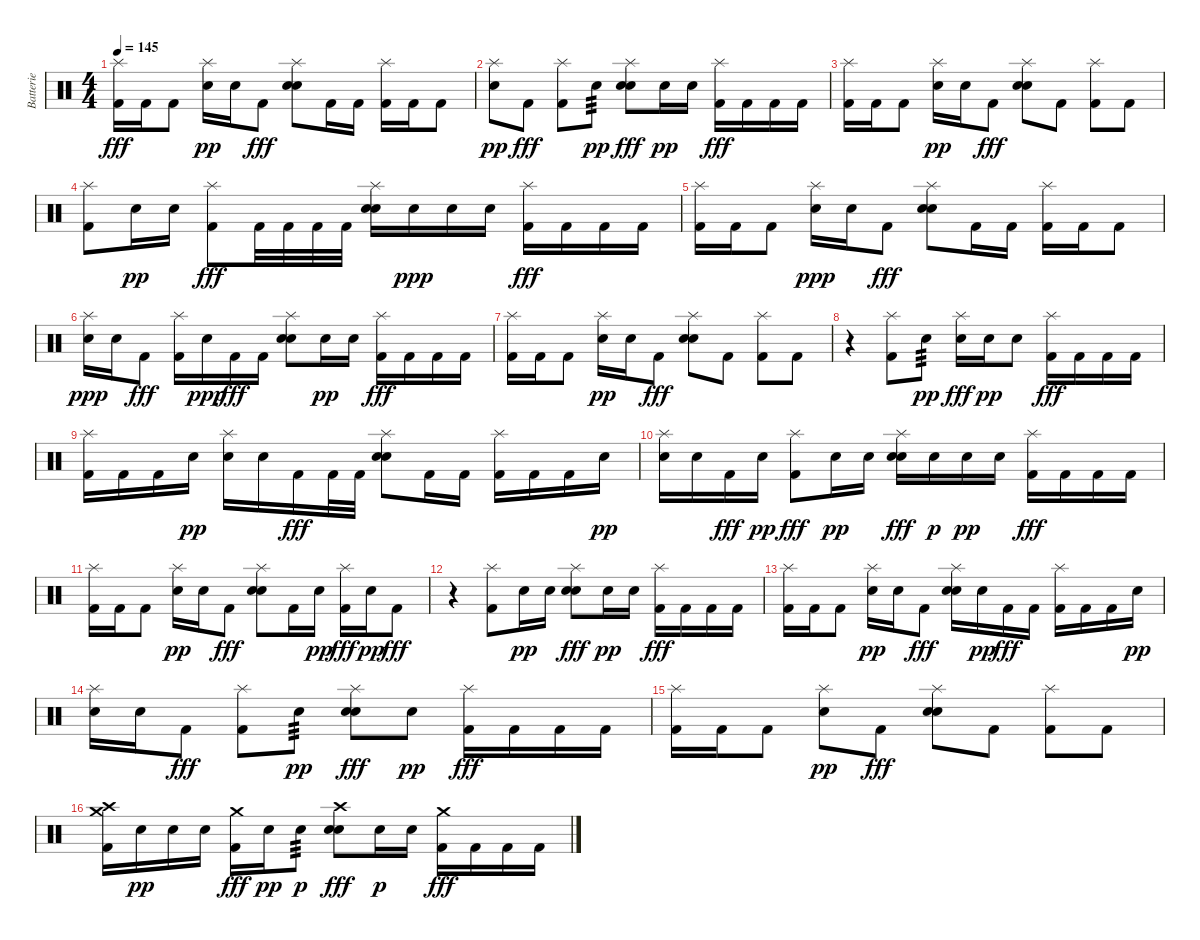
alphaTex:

\track ("Batterie" "Batterie") {instrument percussion}
\staff {score}
\articulation defaults
\ts (4 4)
\tempo 145
\clef neutral
\ks c
("Splash (hit)" "Kick (hit) 2").16{dy fff} "Kick (hit) 2".16 "Kick (hit) 2".8 ("Splash (hit)" "Electric Snare (hit)").16{dy pp} "Electric Snare (hit)".16 "Kick (hit) 2".8{dy fff} ("Splash (hit)" "Electric Snare (hit)" "Electric Snare (hit)").8 "Kick (hit) 2".16 "Kick (hit) 2".16 ("Splash (hit)" "Kick (hit) 2").16 "Kick (hit) 2".16 "Kick (hit) 2".8 |
("Splash (hit)" "Electric Snare (hit)").8{dy pp} "Kick (hit) 2".8{dy fff} ("Splash (hit)" "Kick (hit) 2").8 "Electric Snare (hit)".8{tp 3 dy pp} ("Splash (hit)" "Electric Snare (hit)" "Electric Snare (hit)").8{dy fff} "Electric Snare (hit)".16{dy pp} "Electric Snare (hit)".16 ("Splash (hit)" "Kick (hit) 2").16{dy fff} "Kick (hit) 2".16 "Kick (hit) 2".16 "Kick (hit) 2".16 |
("Splash (hit)" "Kick (hit) 2").16 "Kick (hit) 2".16 "Kick (hit) 2".8 ("Splash (hit)" "Electric Snare (hit)").16{dy pp} "Electric Snare (hit)".16 "Kick (hit) 2".8{dy fff} ("Splash (hit)" "Electric Snare (hit)" "Electric Snare (hit)").8 "Kick (hit) 2".8 ("Splash (hit)" "Kick (hit) 2").8 "Kick (hit) 2".8 |
("Splash (hit)" "Kick (hit) 2").8 "Electric Snare (hit)".16{dy pp} "Electric Snare (hit)".16 ("Splash (hit)" "Kick (hit) 2").8{dy fff} "Kick (hit) 2".32 "Kick (hit) 2".32 "Kick (hit) 2".32 "Kick (hit) 2".32 ("Splash (hit)" "Electric Snare (hit)" "Electric Snare (hit)").16 "Electric Snare (hit)".16{dy ppp} "Electric Snare (hit)".16 "Electric Snare (hit)".16 ("Splash (hit)" "Kick (hit) 2").16{dy fff} "Kick (hit) 2".16 "Kick (hit) 2".16 "Kick (hit) 2".16 |
("Splash (hit)" "Kick (hit) 2").16 "Kick (hit) 2".16 "Kick (hit) 2".8 ("Splash (hit)" "Electric Snare (hit)").16{dy ppp} "Electric Snare (hit)".16 "Kick (hit) 2".8{dy fff} ("Splash (hit)" "Electric Snare (hit)" "Electric Snare (hit)").8 "Kick (hit) 2".16 "Kick (hit) 2".16 ("Splash (hit)" "Kick (hit) 2").16 "Kick (hit) 2".16 "Kick (hit) 2".8 |
("Splash (hit)" "Electric Snare (hit)").16{dy ppp} "Electric Snare (hit)".16 "Kick (hit) 2".8{dy fff} ("Splash (hit)" "Kick (hit) 2").16 "Electric Snare (hit)".16{dy ppp} "Kick (hit) 2".16{dy fff} "Kick (hit) 2".16 ("Splash (hit)" "Electric Snare (hit)" "Electric Snare (hit)").8 "Electric Snare (hit)".16{dy pp} "Electric Snare (hit)".16 ("Splash (hit)" "Kick (hit) 2").16{dy fff} "Kick (hit) 2".16 "Kick (hit) 2".16 "Kick (hit) 2".16 |
("Splash (hit)" "Kick (hit) 2").16 "Kick (hit) 2".16 "Kick (hit) 2".8 ("Splash (hit)" "Electric Snare (hit)").16{dy pp} "Electric Snare (hit)".16 "Kick (hit) 2".8{dy fff} ("Splash (hit)" "Electric Snare (hit)" "Electric Snare (hit)").8 "Kick (hit) 2".8 ("Splash (hit)" "Kick (hit) 2").8 "Kick (hit) 2".8 |
r.4 ("Splash (hit)" "Kick (hit) 2").8 "Electric Snare (hit)".8{tp 3 dy pp} ("Splash (hit)" "Electric Snare (hit)").16{dy fff} "Electric Snare (hit)".16{dy pp} "Electric Snare (hit)".8 ("Splash (hit)" "Kick (hit) 2").16{dy fff} "Kick (hit) 2".16 "Kick (hit) 2".16 "Kick (hit) 2".16 |
("Splash (hit)" "Kick (hit) 2").16 "Kick (hit) 2".16 "Kick (hit) 2".16 "Electric Snare (hit)".16{dy pp} ("Splash (hit)" "Electric Snare (hit)").16 "Electric Snare (hit)".16 "Kick (hit) 2".16{dy fff} "Kick (hit) 2".32 "Kick (hit) 2".32 ("Splash (hit)" "Electric Snare (hit)" "Electric Snare (hit)").8 "Kick (hit) 2".16 "Kick (hit) 2".16 ("Splash (hit)" "Kick (hit) 2").16 "Kick (hit) 2".16 "Kick (hit) 2".16 "Electric Snare (hit)".16{dy pp} |
("Splash (hit)" "Electric Snare (hit)").16 "Electric Snare (hit)".16 "Kick (hit) 2".16{dy fff} "Electric Snare (hit)".16{dy pp} ("Splash (hit)" "Kick (hit) 2").8{dy fff} "Electric Snare (hit)".16{dy pp} "Electric Snare (hit)".16 ("Splash (hit)" "Electric Snare (hit)" "Electric Snare (hit)").16{dy fff} "Electric Snare (hit)".16{dy p} "Electric Snare (hit)".16{dy pp} "Electric Snare (hit)".16 ("Splash (hit)" "Kick (hit) 2").16{dy fff} "Kick (hit) 2".16 "Kick (hit) 2".16 "Kick (hit) 2".16 |
("Splash (hit)" "Kick (hit) 2").16 "Kick (hit) 2".16 "Kick (hit) 2".8 ("Splash (hit)" "Electric Snare (hit)").16{dy pp} "Electric Snare (hit)".16 "Kick (hit) 2".8{dy fff} ("Splash (hit)" "Electric Snare (hit)" "Electric Snare (hit)").8 "Kick (hit) 2".16 "Electric Snare (hit)".16{dy pp} ("Splash (hit)" "Kick (hit) 2").16{dy fff} "Electric Snare (hit)".16{dy pp} "Kick (hit) 2".8{dy fff} |
r.4 ("Splash (hit)" "Kick (hit) 2").8 "Electric Snare (hit)".16{dy pp} "Electric Snare (hit)".16 ("Splash (hit)" "Electric Snare (hit)" "Electric Snare (hit)").8{dy fff} "Electric Snare (hit)".16{dy pp} "Electric Snare (hit)".16 ("Splash (hit)" "Kick (hit) 2").16{dy fff} "Kick (hit) 2".16 "Kick (hit) 2".16 "Kick (hit) 2".16 |
("Splash (hit)" "Kick (hit) 2").16 "Kick (hit) 2".16 "Kick (hit) 2".8 ("Splash (hit)" "Electric Snare (hit)").16{dy pp} "Electric Snare (hit)".16 "Kick (hit) 2".8{dy fff} ("Splash (hit)" "Electric Snare (hit)" "Electric Snare (hit)").16 "Electric Snare (hit)".16{dy pp} "Kick (hit) 2".16{dy fff} "Kick (hit) 2".16 ("Splash (hit)" "Kick (hit) 2").16 "Kick (hit) 2".16 "Kick (hit) 2".16 "Electric Snare (hit)".16{dy pp} |
("Splash (hit)" "Electric Snare (hit)").16 "Electric Snare (hit)".16 "Kick (hit) 2".8{dy fff} ("Splash (hit)" "Kick (hit) 2").8 "Electric Snare (hit)".8{tp 3 dy pp} ("Splash (hit)" "Electric Snare (hit)" "Electric Snare (hit)").8{dy fff} "Electric Snare (hit)".8{dy pp} ("Splash (hit)" "Kick (hit) 2").16{dy fff} "Kick (hit) 2".16 "Kick (hit) 2".16 "Kick (hit) 2".16 |
("Splash (hit)" "Kick (hit) 2").16 "Kick (hit) 2".16 "Kick (hit) 2".8 ("Splash (hit)" "Electric Snare (hit)").8{dy pp} "Kick (hit) 2".8{dy fff} ("Splash (hit)" "Electric Snare (hit)" "Electric Snare (hit)").8 "Kick (hit) 2".8 ("Splash (hit)" "Kick (hit) 2").8 "Kick (hit) 2".8 |
("Crash high (hit)" "Crash medium (hit)" "Kick (hit) 2").16 "Electric Snare (hit)".16{dy pp} "Electric Snare (hit)".16 "Electric Snare (hit)".16 ("Crash medium (hit)" "Kick (hit) 2").16{dy fff} "Electric Snare (hit)".16{dy pp} "Electric Snare (hit)".8{tp 3 dy p} ("Crash high (hit)" "Electric Snare (hit)" "Electric Snare (hit)").8{dy fff} "Electric Snare (hit)".16{dy p} "Electric Snare (hit)".16 ("Crash medium (hit)" "Kick (hit) 2").16{dy fff} "Kick (hit) 2".16 "Kick (hit) 2".16 "Kick (hit) 2".16
